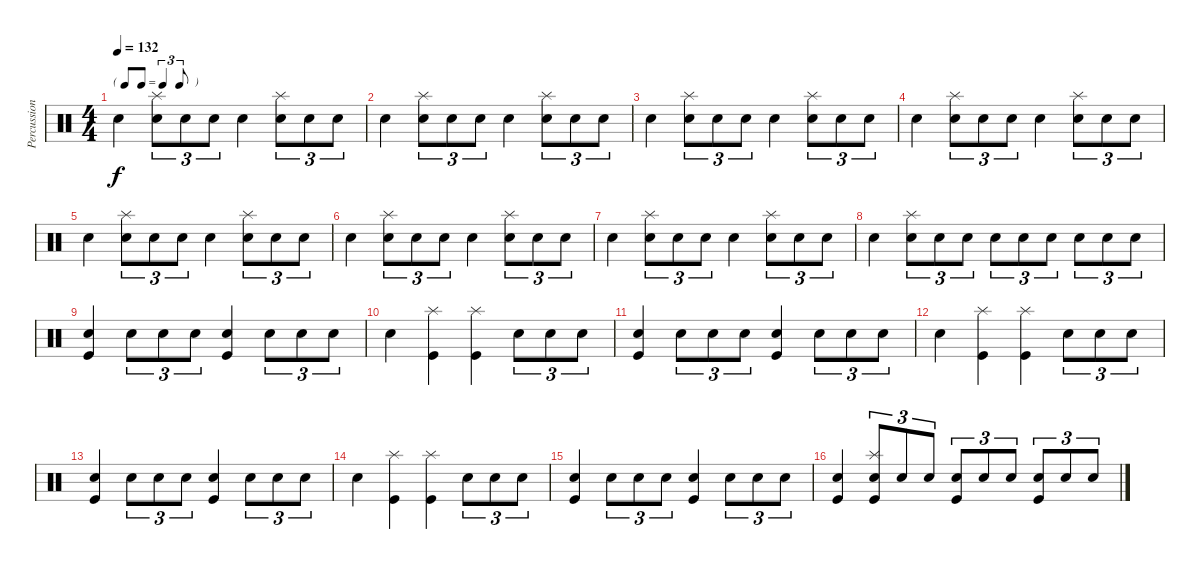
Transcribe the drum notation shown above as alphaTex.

\track ("Percussions" "Percussion") {instrument percussion}
\staff {score}
\articulation defaults
\ts (4 4)
\tf triplet8th
\tempo 132
\clef neutral
\ks c "Snare (hit) 2".4{dy f}
("Snare (hit) 2" "Splash (hit)").8{tu (3 2)} "Snare (hit) 2".8{tu (3 2)} "Snare (hit) 2".8{tu (3 2)} "Snare (hit) 2".4 ("Snare (hit) 2" "Splash (hit)").8{tu (3 2)} "Snare (hit) 2".8{tu (3 2)} "Snare (hit) 2".8{tu (3 2)} |
"Snare (hit) 2".4 ("Snare (hit) 2" "Splash (hit)").8{tu (3 2)} "Snare (hit) 2".8{tu (3 2)} "Snare (hit) 2".8{tu (3 2)} "Snare (hit) 2".4 ("Snare (hit) 2" "Splash (hit)").8{tu (3 2)} "Snare (hit) 2".8{tu (3 2)} "Snare (hit) 2".8{tu (3 2)} |
"Snare (hit) 2".4 ("Snare (hit) 2" "Splash (hit)").8{tu (3 2)} "Snare (hit) 2".8{tu (3 2)} "Snare (hit) 2".8{tu (3 2)} "Snare (hit) 2".4 ("Snare (hit) 2" "Splash (hit)").8{tu (3 2)} "Snare (hit) 2".8{tu (3 2)} "Snare (hit) 2".8{tu (3 2)} |
"Snare (hit) 2".4 ("Snare (hit) 2" "Splash (hit)").8{tu (3 2)} "Snare (hit) 2".8{tu (3 2)} "Snare (hit) 2".8{tu (3 2)} "Snare (hit) 2".4 ("Snare (hit) 2" "Splash (hit)").8{tu (3 2)} "Snare (hit) 2".8{tu (3 2)} "Snare (hit) 2".8{tu (3 2)} |
"Snare (hit) 2".4 ("Snare (hit) 2" "Splash (hit)").8{tu (3 2)} "Snare (hit) 2".8{tu (3 2)} "Snare (hit) 2".8{tu (3 2)} "Snare (hit) 2".4 ("Snare (hit) 2" "Splash (hit)").8{tu (3 2)} "Snare (hit) 2".8{tu (3 2)} "Snare (hit) 2".8{tu (3 2)} |
"Snare (hit) 2".4 ("Snare (hit) 2" "Splash (hit)").8{tu (3 2)} "Snare (hit) 2".8{tu (3 2)} "Snare (hit) 2".8{tu (3 2)} "Snare (hit) 2".4 ("Snare (hit) 2" "Splash (hit)").8{tu (3 2)} "Snare (hit) 2".8{tu (3 2)} "Snare (hit) 2".8{tu (3 2)} |
"Snare (hit) 2".4 ("Snare (hit) 2" "Splash (hit)").8{tu (3 2)} "Snare (hit) 2".8{tu (3 2)} "Snare (hit) 2".8{tu (3 2)} "Snare (hit) 2".4 ("Snare (hit) 2" "Splash (hit)").8{tu (3 2)} "Snare (hit) 2".8{tu (3 2)} "Snare (hit) 2".8{tu (3 2)} |
"Snare (hit) 2".4 ("Snare (hit) 2" "Splash (hit)").8{tu (3 2)} "Snare (hit) 2".8{tu (3 2)} "Snare (hit) 2".8{tu (3 2)} "Snare (hit) 2".8{tu (3 2)} "Snare (hit) 2".8{tu (3 2)} "Snare (hit) 2".8{tu (3 2)} "Snare (hit) 2".8{tu (3 2)} "Snare (hit) 2".8{tu (3 2)} "Snare (hit) 2".8{tu (3 2)} |
("Snare (hit) 2" "Kick (hit)").4 "Snare (hit) 2".8{tu (3 2)} "Snare (hit) 2".8{tu (3 2)} "Snare (hit) 2".8{tu (3 2)} ("Snare (hit) 2" "Kick (hit)").4 "Snare (hit) 2".8{tu (3 2)} "Snare (hit) 2".8{tu (3 2)} "Snare (hit) 2".8{tu (3 2)} |
"Snare (hit) 2".4 ("Splash (hit)" "Kick (hit)").4 ("Splash (hit)" "Kick (hit)").4 "Snare (hit) 2".8{tu (3 2)} "Snare (hit) 2".8{tu (3 2)} "Snare (hit) 2".8{tu (3 2)} |
("Snare (hit) 2" "Kick (hit)").4 "Snare (hit) 2".8{tu (3 2)} "Snare (hit) 2".8{tu (3 2)} "Snare (hit) 2".8{tu (3 2)} ("Snare (hit) 2" "Kick (hit)").4 "Snare (hit) 2".8{tu (3 2)} "Snare (hit) 2".8{tu (3 2)} "Snare (hit) 2".8{tu (3 2)} |
"Snare (hit) 2".4 ("Splash (hit)" "Kick (hit)").4 ("Splash (hit)" "Kick (hit)").4 "Snare (hit) 2".8{tu (3 2)} "Snare (hit) 2".8{tu (3 2)} "Snare (hit) 2".8{tu (3 2)} |
("Snare (hit) 2" "Kick (hit)").4 "Snare (hit) 2".8{tu (3 2)} "Snare (hit) 2".8{tu (3 2)} "Snare (hit) 2".8{tu (3 2)} ("Snare (hit) 2" "Kick (hit)").4 "Snare (hit) 2".8{tu (3 2)} "Snare (hit) 2".8{tu (3 2)} "Snare (hit) 2".8{tu (3 2)} |
"Snare (hit) 2".4 ("Splash (hit)" "Kick (hit)").4 ("Splash (hit)" "Kick (hit)").4 "Snare (hit) 2".8{tu (3 2)} "Snare (hit) 2".8{tu (3 2)} "Snare (hit) 2".8{tu (3 2)} |
("Snare (hit) 2" "Kick (hit)").4 "Snare (hit) 2".8{tu (3 2)} "Snare (hit) 2".8{tu (3 2)} "Snare (hit) 2".8{tu (3 2)} ("Snare (hit) 2" "Kick (hit)").4 "Snare (hit) 2".8{tu (3 2)} "Snare (hit) 2".8{tu (3 2)} "Snare (hit) 2".8{tu (3 2)} |
("Snare (hit) 2" "Kick (hit)").4 ("Snare (hit) 2" "Kick (hit)" "Splash (hit)").8{tu (3 2)} "Snare (hit) 2".8{tu (3 2)} "Snare (hit) 2".8{tu (3 2)} ("Snare (hit) 2" "Kick (hit)").8{tu (3 2)} "Snare (hit) 2".8{tu (3 2)} "Snare (hit) 2".8{tu (3 2)} ("Snare (hit) 2" "Kick (hit)").8{tu (3 2)} "Snare (hit) 2".8{tu (3 2)} "Snare (hit) 2".8{tu (3 2)}
